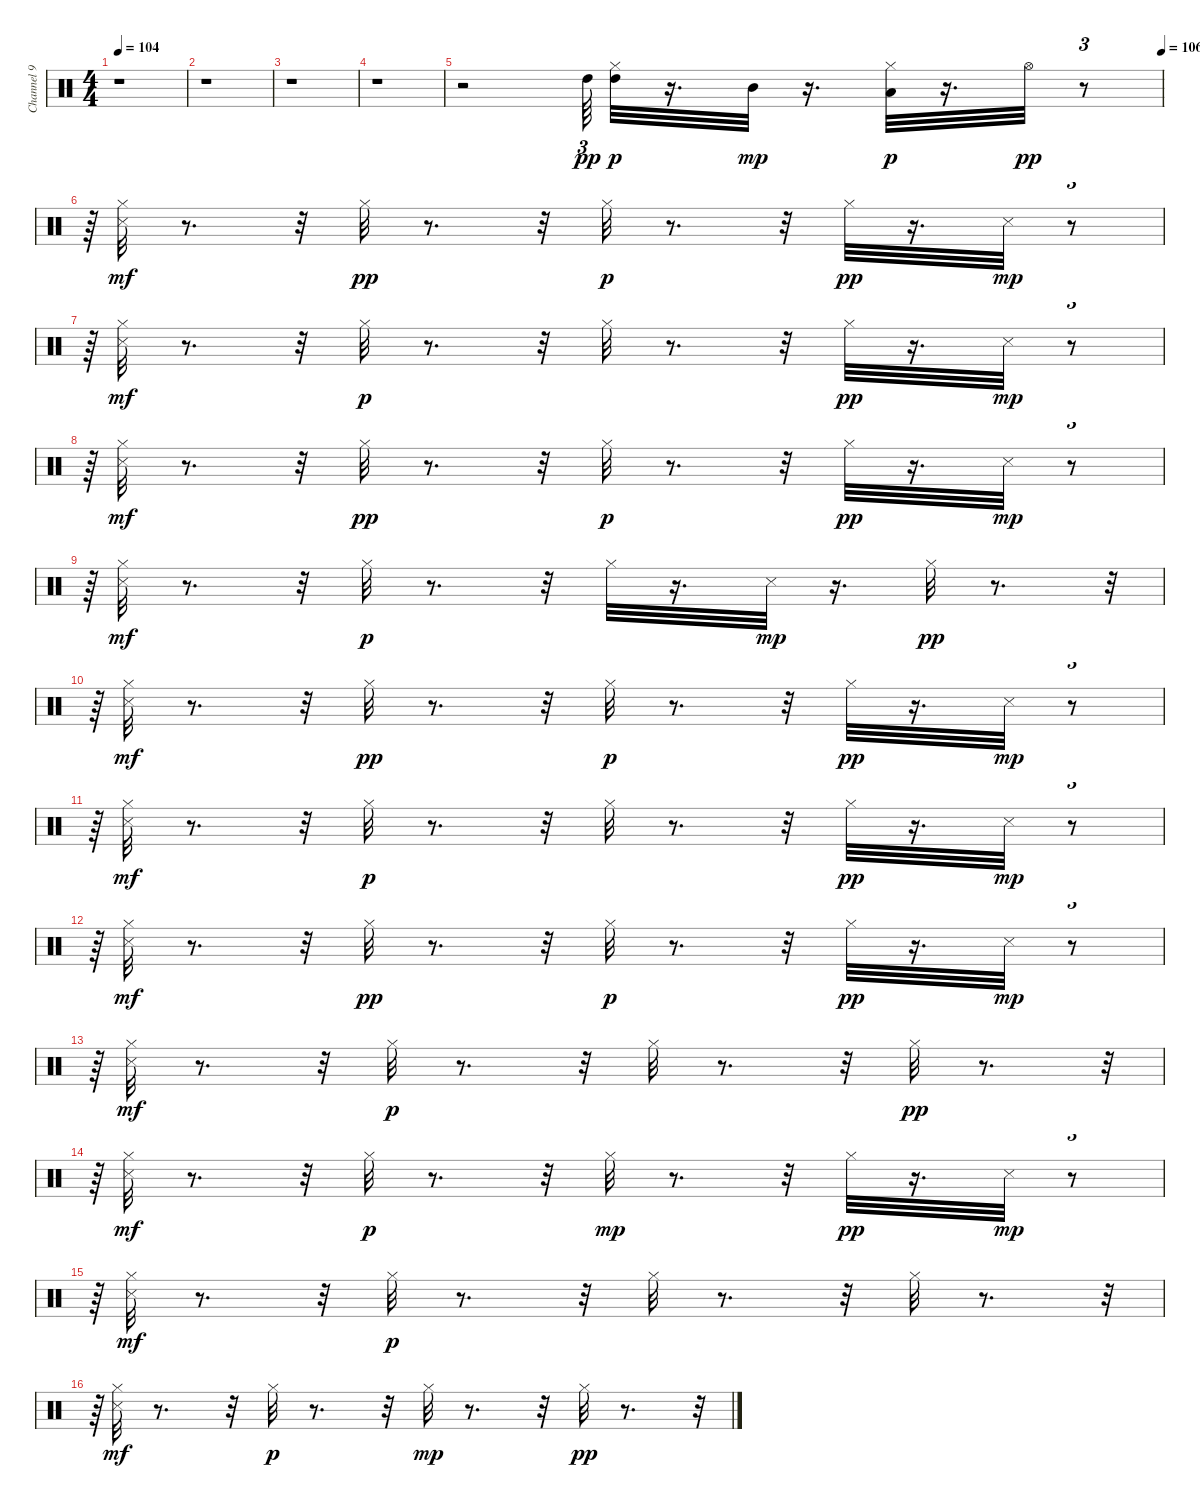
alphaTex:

\track ("Channel 9" "Channel 9") {instrument percussion}
\staff {score}
\articulation defaults
\ts (4 4)
\tempo 104
\clef neutral
\ks c
r.1{dy pp} |
r.1 |
r.1 |
r.1 |
\tempo (106 1)
r.2 "High Tom (hit)".64{tu (3 2)} ("Hi-Hat (closed)" "High Tom (hit)").32{dy p} r.16{d} "Mid Tom (hit)".32{dy mp} r.16{d} ("Hi-Hat (closed)" "Low Tom (hit)").32{dy p} r.16{d} "Hi-Hat (open)".32{dy pp} r.8{tu (3 2)} |
r.64{tu (3 2)} ("Hi-Hat (closed)" "Metronome (hit)").32{dy mf} r.8{d} r.32 "Hi-Hat (closed)".32{dy pp} r.8{d} r.32 "Hi-Hat (closed)".32{dy p} r.8{d} r.32 "Hi-Hat (closed)".32{dy pp} r.16{d} "Metronome (hit)".32{dy mp} r.8{tu (3 2)} |
r.64{tu (3 2)} ("Hi-Hat (closed)" "Metronome (hit)").32{dy mf} r.8{d} r.32 "Hi-Hat (closed)".32{dy p} r.8{d} r.32 "Hi-Hat (closed)".32 r.8{d} r.32 "Hi-Hat (closed)".32{dy pp} r.16{d} "Metronome (hit)".32{dy mp} r.8{tu (3 2)} |
r.64{tu (3 2)} ("Hi-Hat (closed)" "Metronome (hit)").32{dy mf} r.8{d} r.32 "Hi-Hat (closed)".32{dy pp} r.8{d} r.32 "Hi-Hat (closed)".32{dy p} r.8{d} r.32 "Hi-Hat (closed)".32{dy pp} r.16{d} "Metronome (hit)".32{dy mp} r.8{tu (3 2)} |
r.64{tu (3 2)} ("Hi-Hat (closed)" "Metronome (hit)").32{dy mf} r.8{d} r.32 "Hi-Hat (closed)".32{dy p} r.8{d} r.32 "Hi-Hat (closed)".32 r.16{d} "Metronome (hit)".32{dy mp} r.16{d} "Hi-Hat (closed)".32{dy pp} r.8{d} r.32{tu (3 2)} |
r.64{tu (3 2)} ("Hi-Hat (closed)" "Metronome (hit)").32{dy mf} r.8{d} r.32 "Hi-Hat (closed)".32{dy pp} r.8{d} r.32 "Hi-Hat (closed)".32{dy p} r.8{d} r.32 "Hi-Hat (closed)".32{dy pp} r.16{d} "Metronome (hit)".32{dy mp} r.8{tu (3 2)} |
r.64{tu (3 2)} ("Hi-Hat (closed)" "Metronome (hit)").32{dy mf} r.8{d} r.32 "Hi-Hat (closed)".32{dy p} r.8{d} r.32 "Hi-Hat (closed)".32 r.8{d} r.32 "Hi-Hat (closed)".32{dy pp} r.16{d} "Metronome (hit)".32{dy mp} r.8{tu (3 2)} |
r.64{tu (3 2)} ("Hi-Hat (closed)" "Metronome (hit)").32{dy mf} r.8{d} r.32 "Hi-Hat (closed)".32{dy pp} r.8{d} r.32 "Hi-Hat (closed)".32{dy p} r.8{d} r.32 "Hi-Hat (closed)".32{dy pp} r.16{d} "Metronome (hit)".32{dy mp} r.8{tu (3 2)} |
r.64{tu (3 2)} ("Hi-Hat (closed)" "Metronome (hit)").32{dy mf} r.8{d} r.32 "Hi-Hat (closed)".32{dy p} r.8{d} r.32 "Hi-Hat (closed)".32 r.8{d} r.32 "Hi-Hat (closed)".32{dy pp} r.8{d} r.32{tu (3 2)} |
r.64{tu (3 2)} ("Hi-Hat (closed)" "Metronome (hit)").32{dy mf} r.8{d} r.32 "Hi-Hat (closed)".32{dy p} r.8{d} r.32 "Hi-Hat (closed)".32{dy mp} r.8{d} r.32 "Hi-Hat (closed)".32{dy pp} r.16{d} "Metronome (hit)".32{dy mp} r.8{tu (3 2)} |
r.64{tu (3 2)} ("Hi-Hat (closed)" "Metronome (hit)").32{dy mf} r.8{d} r.32 "Hi-Hat (closed)".32{dy p} r.8{d} r.32 "Hi-Hat (closed)".32 r.8{d} r.32 "Hi-Hat (closed)".32 r.8{d} r.32{tu (3 2)} |
r.64{tu (3 2)} ("Hi-Hat (closed)" "Metronome (hit)").32{dy mf} r.8{d} r.32 "Hi-Hat (closed)".32{dy p} r.8{d} r.32 "Hi-Hat (closed)".32{dy mp} r.8{d} r.32 "Hi-Hat (closed)".32{dy pp} r.8{d} r.32{tu (3 2)}
